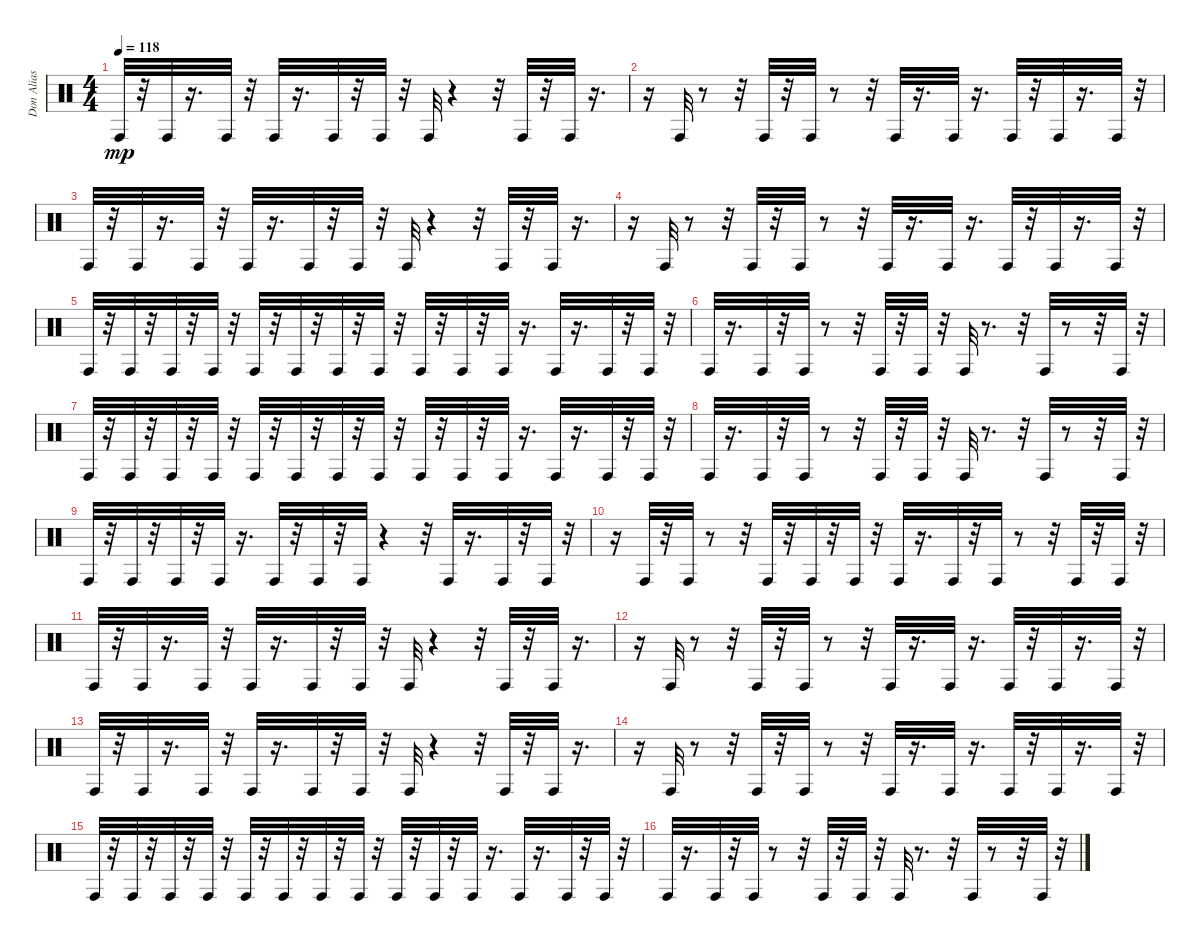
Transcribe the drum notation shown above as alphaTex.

\track ("Don Alias" "Don Alias") {instrument percussion}
\staff {score}
\articulation defaults
\ts (4 4)
\tempo 118
\clef neutral
\ks c "Conga high (hit)".32{dy mp}
r.32 "Conga high (hit)".32 r.16{d} "Conga high (hit)".32 r.32 "Conga high (hit)".32 r.16{d} "Conga high (hit)".32 r.32 "Conga high (hit)".32 r.32 "Conga high (hit)".32 r.4 r.32 "Conga high (hit)".32 r.32 "Conga high (hit)".32 r.16{d} |
r.16 "Conga high (hit)".32 r.8 r.32 "Conga high (hit)".32 r.32 "Conga high (hit)".32 r.8 r.32 "Conga high (hit)".32 r.16{d} "Conga high (hit)".32 r.16{d} "Conga high (hit)".32 r.32 "Conga high (hit)".32 r.16{d} "Conga high (hit)".32 r.32 |
"Conga high (hit)".32 r.32 "Conga high (hit)".32 r.16{d} "Conga high (hit)".32 r.32 "Conga high (hit)".32 r.16{d} "Conga high (hit)".32 r.32 "Conga high (hit)".32 r.32 "Conga high (hit)".32 r.4 r.32 "Conga high (hit)".32 r.32 "Conga high (hit)".32 r.16{d} |
r.16 "Conga high (hit)".32 r.8 r.32 "Conga high (hit)".32 r.32 "Conga high (hit)".32 r.8 r.32 "Conga high (hit)".32 r.16{d} "Conga high (hit)".32 r.16{d} "Conga high (hit)".32 r.32 "Conga high (hit)".32 r.16{d} "Conga high (hit)".32 r.32 |
"Conga high (hit)".32 r.32 "Conga high (hit)".32 r.32 "Conga high (hit)".32 r.32 "Conga high (hit)".32 r.32 "Conga high (hit)".32 r.32 "Conga high (hit)".32 r.32 "Conga high (hit)".32 r.32 "Conga high (hit)".32 r.32 "Conga high (hit)".32 r.32 "Conga high (hit)".32 r.32 "Conga high (hit)".32 r.16{d} "Conga high (hit)".32 r.16{d} "Conga high (hit)".32 r.32 "Conga high (hit)".32 r.32 |
"Conga high (hit)".32 r.16{d} "Conga high (hit)".32 r.32 "Conga high (hit)".32 r.8 r.32 "Conga high (hit)".32 r.32 "Conga high (hit)".32 r.32 "Conga high (hit)".32 r.8{d} r.32 "Conga high (hit)".32 r.8 r.32 "Conga high (hit)".32 r.32 |
"Conga high (hit)".32 r.32 "Conga high (hit)".32 r.32 "Conga high (hit)".32 r.32 "Conga high (hit)".32 r.32 "Conga high (hit)".32 r.32 "Conga high (hit)".32 r.32 "Conga high (hit)".32 r.32 "Conga high (hit)".32 r.32 "Conga high (hit)".32 r.32 "Conga high (hit)".32 r.32 "Conga high (hit)".32 r.16{d} "Conga high (hit)".32 r.16{d} "Conga high (hit)".32 r.32 "Conga high (hit)".32 r.32 |
"Conga high (hit)".32 r.16{d} "Conga high (hit)".32 r.32 "Conga high (hit)".32 r.8 r.32 "Conga high (hit)".32 r.32 "Conga high (hit)".32 r.32 "Conga high (hit)".32 r.8{d} r.32 "Conga high (hit)".32 r.8 r.32 "Conga high (hit)".32 r.32 |
"Conga high (hit)".32 r.32 "Conga high (hit)".32 r.32 "Conga high (hit)".32 r.32 "Conga high (hit)".32 r.16{d} "Conga high (hit)".32 r.32 "Conga high (hit)".32 r.32 "Conga high (hit)".32 r.4 r.32 "Conga high (hit)".32 r.16{d} "Conga high (hit)".32 r.32 "Conga high (hit)".32 r.32 |
r.16 "Conga high (hit)".32 r.32 "Conga high (hit)".32 r.8 r.32 "Conga high (hit)".32 r.32 "Conga high (hit)".32 r.32 "Conga high (hit)".32 r.32 "Conga high (hit)".32 r.16{d} "Conga high (hit)".32 r.32 "Conga high (hit)".32 r.8 r.32 "Conga high (hit)".32 r.32 "Conga high (hit)".32 r.32 |
"Conga high (hit)".32 r.32 "Conga high (hit)".32 r.16{d} "Conga high (hit)".32 r.32 "Conga high (hit)".32 r.16{d} "Conga high (hit)".32 r.32 "Conga high (hit)".32 r.32 "Conga high (hit)".32 r.4 r.32 "Conga high (hit)".32 r.32 "Conga high (hit)".32 r.16{d} |
r.16 "Conga high (hit)".32 r.8 r.32 "Conga high (hit)".32 r.32 "Conga high (hit)".32 r.8 r.32 "Conga high (hit)".32 r.16{d} "Conga high (hit)".32 r.16{d} "Conga high (hit)".32 r.32 "Conga high (hit)".32 r.16{d} "Conga high (hit)".32 r.32 |
"Conga high (hit)".32 r.32 "Conga high (hit)".32 r.16{d} "Conga high (hit)".32 r.32 "Conga high (hit)".32 r.16{d} "Conga high (hit)".32 r.32 "Conga high (hit)".32 r.32 "Conga high (hit)".32 r.4 r.32 "Conga high (hit)".32 r.32 "Conga high (hit)".32 r.16{d} |
r.16 "Conga high (hit)".32 r.8 r.32 "Conga high (hit)".32 r.32 "Conga high (hit)".32 r.8 r.32 "Conga high (hit)".32 r.16{d} "Conga high (hit)".32 r.16{d} "Conga high (hit)".32 r.32 "Conga high (hit)".32 r.16{d} "Conga high (hit)".32 r.32 |
"Conga high (hit)".32 r.32 "Conga high (hit)".32 r.32 "Conga high (hit)".32 r.32 "Conga high (hit)".32 r.32 "Conga high (hit)".32 r.32 "Conga high (hit)".32 r.32 "Conga high (hit)".32 r.32 "Conga high (hit)".32 r.32 "Conga high (hit)".32 r.32 "Conga high (hit)".32 r.32 "Conga high (hit)".32 r.16{d} "Conga high (hit)".32 r.16{d} "Conga high (hit)".32 r.32 "Conga high (hit)".32 r.32 |
"Conga high (hit)".32 r.16{d} "Conga high (hit)".32 r.32 "Conga high (hit)".32 r.8 r.32 "Conga high (hit)".32 r.32 "Conga high (hit)".32 r.32 "Conga high (hit)".32 r.8{d} r.32 "Conga high (hit)".32 r.8 r.32 "Conga high (hit)".32 r.32
